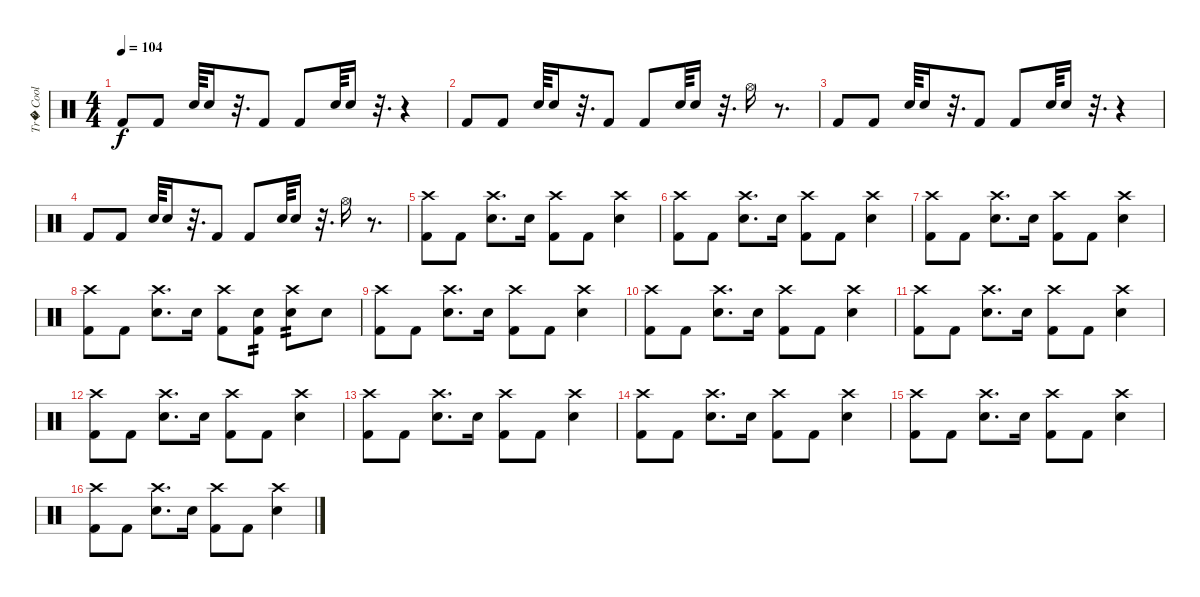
\track ("Tr� Cool" "Tr� Cool") {instrument percussion}
\staff {score}
\articulation defaults
\ts (4 4)
\tempo 104
\clef neutral
\ks c "Kick (hit) 2".8{dy f volume 13} "Kick (hit) 2".8 "Electric Snare (hit)".64 "Electric Snare (hit)".16
r.32{d} "Kick (hit) 2".8 "Kick (hit) 2".8 "Electric Snare (hit)".64 "Electric Snare (hit)".16 r.32{d} r.4 |
"Kick (hit) 2".8{volume 13} "Kick (hit) 2".8 "Electric Snare (hit)".64 "Electric Snare (hit)".16 r.32{d} "Kick (hit) 2".8 "Kick (hit) 2".8 "Electric Snare (hit)".64 "Electric Snare (hit)".16 r.32{d} "Hi-Hat (open)".16 r.8{d} |
"Kick (hit) 2".8{volume 13} "Kick (hit) 2".8 "Electric Snare (hit)".64 "Electric Snare (hit)".16 r.32{d} "Kick (hit) 2".8 "Kick (hit) 2".8 "Electric Snare (hit)".64 "Electric Snare (hit)".16 r.32{d} r.4 |
"Kick (hit) 2".8{volume 13} "Kick (hit) 2".8 "Electric Snare (hit)".64 "Electric Snare (hit)".16 r.32{d} "Kick (hit) 2".8 "Kick (hit) 2".8 "Electric Snare (hit)".64 "Electric Snare (hit)".16 r.32{d} "Hi-Hat (open)".16 r.8{d} |
("Crash high (hit)" "Kick (hit) 2").8 "Kick (hit) 2".8 ("Crash high (hit)" "Electric Snare (hit)").8{d} "Electric Snare (hit)".16 ("Crash high (hit)" "Kick (hit) 2").8 "Kick (hit) 2".8 ("Crash high (hit)" "Electric Snare (hit)").4 |
("Crash high (hit)" "Kick (hit) 2").8 "Kick (hit) 2".8 ("Crash high (hit)" "Electric Snare (hit)").8{d} "Electric Snare (hit)".16 ("Crash high (hit)" "Kick (hit) 2").8 "Kick (hit) 2".8 ("Crash high (hit)" "Electric Snare (hit)").4 |
("Crash high (hit)" "Kick (hit) 2").8 "Kick (hit) 2".8 ("Crash high (hit)" "Electric Snare (hit)").8{d} "Electric Snare (hit)".16 ("Crash high (hit)" "Kick (hit) 2").8 "Kick (hit) 2".8 ("Crash high (hit)" "Electric Snare (hit)").4 |
("Crash high (hit)" "Kick (hit) 2").8 "Kick (hit) 2".8 ("Crash high (hit)" "Electric Snare (hit)").8{d} "Electric Snare (hit)".16 ("Crash high (hit)" "Kick (hit) 2").8 ("Electric Snare (hit)" "Kick (hit) 2").8{tp 2} ("Crash high (hit)" "Electric Snare (hit)").8{tp 2} "Electric Snare (hit)".8 |
("Crash high (hit)" "Kick (hit) 2").8 "Kick (hit) 2".8 ("Crash high (hit)" "Electric Snare (hit)").8{d} "Electric Snare (hit)".16 ("Crash high (hit)" "Kick (hit) 2").8 "Kick (hit) 2".8 ("Crash high (hit)" "Electric Snare (hit)").4 |
("Crash high (hit)" "Kick (hit) 2").8 "Kick (hit) 2".8 ("Crash high (hit)" "Electric Snare (hit)").8{d} "Electric Snare (hit)".16 ("Crash high (hit)" "Kick (hit) 2").8 "Kick (hit) 2".8 ("Crash high (hit)" "Electric Snare (hit)").4 |
("Crash high (hit)" "Kick (hit) 2").8 "Kick (hit) 2".8 ("Crash high (hit)" "Electric Snare (hit)").8{d} "Electric Snare (hit)".16 ("Crash high (hit)" "Kick (hit) 2").8 "Kick (hit) 2".8 ("Crash high (hit)" "Electric Snare (hit)").4 |
("Crash high (hit)" "Kick (hit) 2").8 "Kick (hit) 2".8 ("Crash high (hit)" "Electric Snare (hit)").8{d} "Electric Snare (hit)".16 ("Crash high (hit)" "Kick (hit) 2").8 "Kick (hit) 2".8 ("Crash high (hit)" "Electric Snare (hit)").4 |
("Crash high (hit)" "Kick (hit) 2").8 "Kick (hit) 2".8 ("Crash high (hit)" "Electric Snare (hit)").8{d} "Electric Snare (hit)".16 ("Crash high (hit)" "Kick (hit) 2").8 "Kick (hit) 2".8 ("Crash high (hit)" "Electric Snare (hit)").4 |
("Crash high (hit)" "Kick (hit) 2").8 "Kick (hit) 2".8 ("Crash high (hit)" "Electric Snare (hit)").8{d} "Electric Snare (hit)".16 ("Crash high (hit)" "Kick (hit) 2").8 "Kick (hit) 2".8 ("Crash high (hit)" "Electric Snare (hit)").4 |
("Crash high (hit)" "Kick (hit) 2").8 "Kick (hit) 2".8 ("Crash high (hit)" "Electric Snare (hit)").8{d} "Electric Snare (hit)".16 ("Crash high (hit)" "Kick (hit) 2").8 "Kick (hit) 2".8 ("Crash high (hit)" "Electric Snare (hit)").4 |
("Crash high (hit)" "Kick (hit) 2").8 "Kick (hit) 2".8 ("Crash high (hit)" "Electric Snare (hit)").8{d} "Electric Snare (hit)".16 ("Crash high (hit)" "Kick (hit) 2").8 "Kick (hit) 2".8 ("Crash high (hit)" "Electric Snare (hit)").4
